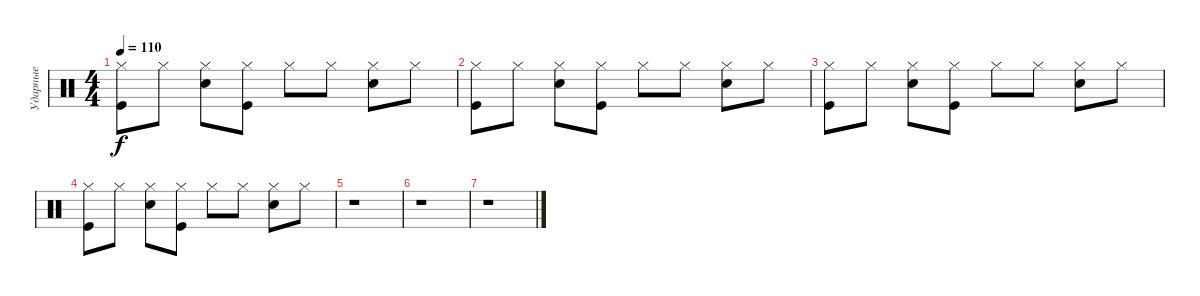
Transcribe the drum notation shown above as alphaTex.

\track ("Ударные" "Ударные") {instrument percussion}
\staff {score}
\articulation defaults
\ts (4 4)
\tempo 110
\clef neutral
\ks c
("Hi-Hat (closed)" "Kick (hit)").8{dy f} "Hi-Hat (closed)".8 ("Hi-Hat (closed)" "Snare (hit) 2").8 ("Hi-Hat (closed)" "Kick (hit)").8 "Hi-Hat (closed)".8 "Hi-Hat (closed)".8 ("Hi-Hat (closed)" "Snare (hit) 2").8 "Hi-Hat (closed)".8 |
("Hi-Hat (closed)" "Kick (hit)").8 "Hi-Hat (closed)".8 ("Hi-Hat (closed)" "Snare (hit) 2").8 ("Hi-Hat (closed)" "Kick (hit)").8 "Hi-Hat (closed)".8 "Hi-Hat (closed)".8 ("Hi-Hat (closed)" "Snare (hit) 2").8 "Hi-Hat (closed)".8 |
("Hi-Hat (closed)" "Kick (hit)").8 "Hi-Hat (closed)".8 ("Hi-Hat (closed)" "Snare (hit) 2").8 ("Hi-Hat (closed)" "Kick (hit)").8 "Hi-Hat (closed)".8 "Hi-Hat (closed)".8 ("Hi-Hat (closed)" "Snare (hit) 2").8 "Hi-Hat (closed)".8 |
("Hi-Hat (closed)" "Kick (hit)").8 "Hi-Hat (closed)".8 ("Hi-Hat (closed)" "Snare (hit) 2").8 ("Hi-Hat (closed)" "Kick (hit)").8 "Hi-Hat (closed)".8 "Hi-Hat (closed)".8 ("Hi-Hat (closed)" "Snare (hit) 2").8 "Hi-Hat (closed)".8 |
r.1 |
r.1 |
r.1
